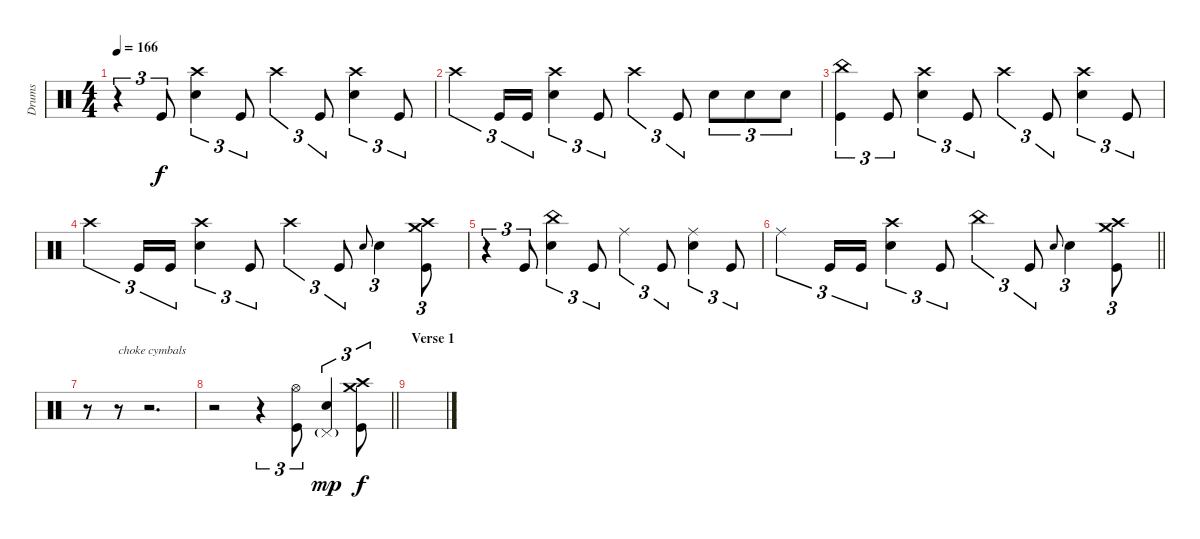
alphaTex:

\track ("Drums" "Drums") {instrument percussion}
\staff {score}
\articulation defaults
\ts (4 4)
\tempo 166
\clef neutral
\ks c
r.4{tu (3 2) dy f} "Kick (hit)".8{tu (3 2)} ("Crash high (hit)" "Electric Snare (hit)").4{tu (3 2)} "Kick (hit)".8{tu (3 2)} "Crash high (hit)".4{tu (3 2)} "Kick (hit)".8{tu (3 2)} ("Crash high (hit)" "Electric Snare (hit)").4{tu (3 2)} "Kick (hit)".8{tu (3 2)} |
"Crash high (hit)".4{tu (3 2)} "Kick (hit)".16{tu (3 2)} "Kick (hit)".16{tu (3 2)} ("Crash high (hit)" "Electric Snare (hit)").4{tu (3 2)} "Kick (hit)".8{tu (3 2)} "Crash high (hit)".4{tu (3 2)} "Kick (hit)".8{tu (3 2)} "Electric Snare (hit)".8{tu (3 2)} "Electric Snare (hit)".8{tu (3 2)} "Electric Snare (hit)".8{tu (3 2)} |
("China (hit)" "Kick (hit)").4{tu (3 2)} "Kick (hit)".8{tu (3 2)} ("Crash high (hit)" "Electric Snare (hit)").4{tu (3 2)} "Kick (hit)".8{tu (3 2)} "Crash high (hit)".4{tu (3 2)} "Kick (hit)".8{tu (3 2)} ("Crash high (hit)" "Electric Snare (hit)").4{tu (3 2)} "Kick (hit)".8{tu (3 2)} |
"Crash high (hit)".4{tu (3 2)} "Kick (hit)".16{tu (3 2)} "Kick (hit)".16{tu (3 2)} ("Crash high (hit)" "Electric Snare (hit)").4{tu (3 2)} "Kick (hit)".8{tu (3 2)} "Crash high (hit)".4{tu (3 2)} "Kick (hit)".8{tu (3 2)} "Electric Snare (hit)".8{gr onbeat} "Electric Snare (hit)".4{tu (3 2)} ("Crash high (hit)" "Crash medium (hit)" "Kick (hit)").8{tu (3 2)} |
r.4{tu (3 2)} "Kick (hit)".8{tu (3 2)} ("China (hit)" "Electric Snare (hit)").4{tu (3 2)} "Kick (hit)".8{tu (3 2)} "Ride (middle)".4{tu (3 2)} "Kick (hit)".8{tu (3 2)} ("Ride (middle)" "Electric Snare (hit)").4{tu (3 2)} "Kick (hit)".8{tu (3 2)} |
\barLineRight lightlight "Ride (middle)".4{tu (3 2)} "Kick (hit)".16{tu (3 2)} "Kick (hit)".16{tu (3 2)}
("Crash high (hit)" "Electric Snare (hit)").4{tu (3 2)} "Kick (hit)".8{tu (3 2)} "China (hit)".4{tu (3 2)} "Kick (hit)".8{tu (3 2)} "Electric Snare (hit)".8{gr onbeat} "Electric Snare (hit)".4{tu (3 2)} ("Crash high (hit)" "Crash medium (hit)" "Kick (hit)").8{tu (3 2)} |
\section ("" "")
r.8 r.8{txt "choke cymbals" volume 0} r.2{d} |
\barLineRight lightlight
r.2 r.4{tu (3 2)} ("Hi-Hat (open)" "Kick (hit)").8{tu (3 2) volume 13} ("Pedal Hi-Hat (hit)"{g} "Electric Snare (hit)").4{tu (3 2) dy mp} ("Crash high (hit)" "Crash medium (hit)" "Kick (hit)").8{tu (3 2) dy f} |
\section ("" "Verse 1")
